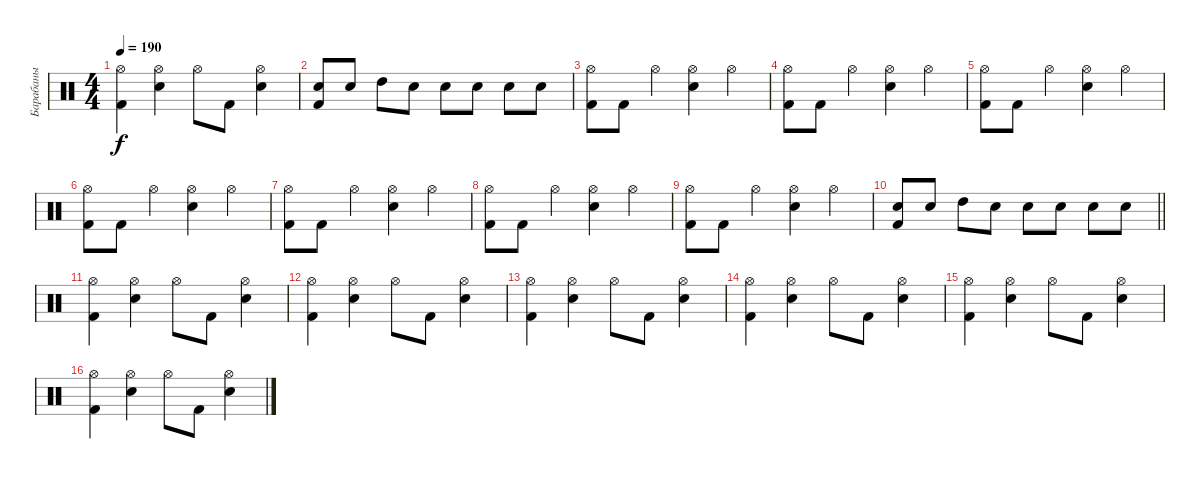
\track ("Барабаны" "Барабаны") {instrument percussion}
\staff {score}
\articulation defaults
\ts (4 4)
\tempo 190
\clef neutral
\ks c
("Kick (hit) 2" "Hi-Hat (open)").4{dy f} ("Hi-Hat (open)" "Electric Snare (hit)").4 "Hi-Hat (open)".8 "Kick (hit) 2".8 ("Hi-Hat (open)" "Electric Snare (hit)").4 |
("Kick (hit) 2" "Electric Snare (hit)").8 "Electric Snare (hit)".8 "High Tom (hit)".8 "Electric Snare (hit)".8 "Electric Snare (hit)".8 "Electric Snare (hit)".8 "Electric Snare (hit)".8 "Electric Snare (hit)".8 |
("Kick (hit) 2" "Hi-Hat (open)").8 "Kick (hit) 2".8 "Hi-Hat (open)".4 ("Electric Snare (hit)" "Hi-Hat (open)").4 "Hi-Hat (open)".4 |
("Hi-Hat (open)" "Kick (hit) 2").8 "Kick (hit) 2".8 "Hi-Hat (open)".4 ("Hi-Hat (open)" "Electric Snare (hit)").4 "Hi-Hat (open)".4 |
("Kick (hit) 2" "Hi-Hat (open)").8 "Kick (hit) 2".8 "Hi-Hat (open)".4 ("Electric Snare (hit)" "Hi-Hat (open)").4 "Hi-Hat (open)".4 |
("Hi-Hat (open)" "Kick (hit) 2").8 "Kick (hit) 2".8 "Hi-Hat (open)".4 ("Hi-Hat (open)" "Electric Snare (hit)").4 "Hi-Hat (open)".4 |
("Kick (hit) 2" "Hi-Hat (open)").8 "Kick (hit) 2".8 "Hi-Hat (open)".4 ("Electric Snare (hit)" "Hi-Hat (open)").4 "Hi-Hat (open)".4 |
("Hi-Hat (open)" "Kick (hit) 2").8 "Kick (hit) 2".8 "Hi-Hat (open)".4 ("Hi-Hat (open)" "Electric Snare (hit)").4 "Hi-Hat (open)".4 |
("Kick (hit) 2" "Hi-Hat (open)").8 "Kick (hit) 2".8 "Hi-Hat (open)".4 ("Electric Snare (hit)" "Hi-Hat (open)").4 "Hi-Hat (open)".4 |
\barLineRight lightlight
("Kick (hit) 2" "Electric Snare (hit)").8 "Electric Snare (hit)".8 "High Tom (hit)".8 "Electric Snare (hit)".8 "Electric Snare (hit)".8 "Electric Snare (hit)".8 "Electric Snare (hit)".8 "Electric Snare (hit)".8 |
("Kick (hit) 2" "Hi-Hat (open)").4 ("Hi-Hat (open)" "Electric Snare (hit)").4 "Hi-Hat (open)".8 "Kick (hit) 2".8 ("Hi-Hat (open)" "Electric Snare (hit)").4 |
("Kick (hit) 2" "Hi-Hat (open)").4 ("Hi-Hat (open)" "Electric Snare (hit)").4 "Hi-Hat (open)".8 "Kick (hit) 2".8 ("Hi-Hat (open)" "Electric Snare (hit)").4 |
("Kick (hit) 2" "Hi-Hat (open)").4 ("Hi-Hat (open)" "Electric Snare (hit)").4 "Hi-Hat (open)".8 "Kick (hit) 2".8 ("Hi-Hat (open)" "Electric Snare (hit)").4 |
("Kick (hit) 2" "Hi-Hat (open)").4 ("Hi-Hat (open)" "Electric Snare (hit)").4 "Hi-Hat (open)".8 "Kick (hit) 2".8 ("Hi-Hat (open)" "Electric Snare (hit)").4 |
("Kick (hit) 2" "Hi-Hat (open)").4 ("Hi-Hat (open)" "Electric Snare (hit)").4 "Hi-Hat (open)".8 "Kick (hit) 2".8 ("Hi-Hat (open)" "Electric Snare (hit)").4 |
("Kick (hit) 2" "Hi-Hat (open)").4 ("Hi-Hat (open)" "Electric Snare (hit)").4 "Hi-Hat (open)".8 "Kick (hit) 2".8 ("Hi-Hat (open)" "Electric Snare (hit)").4
